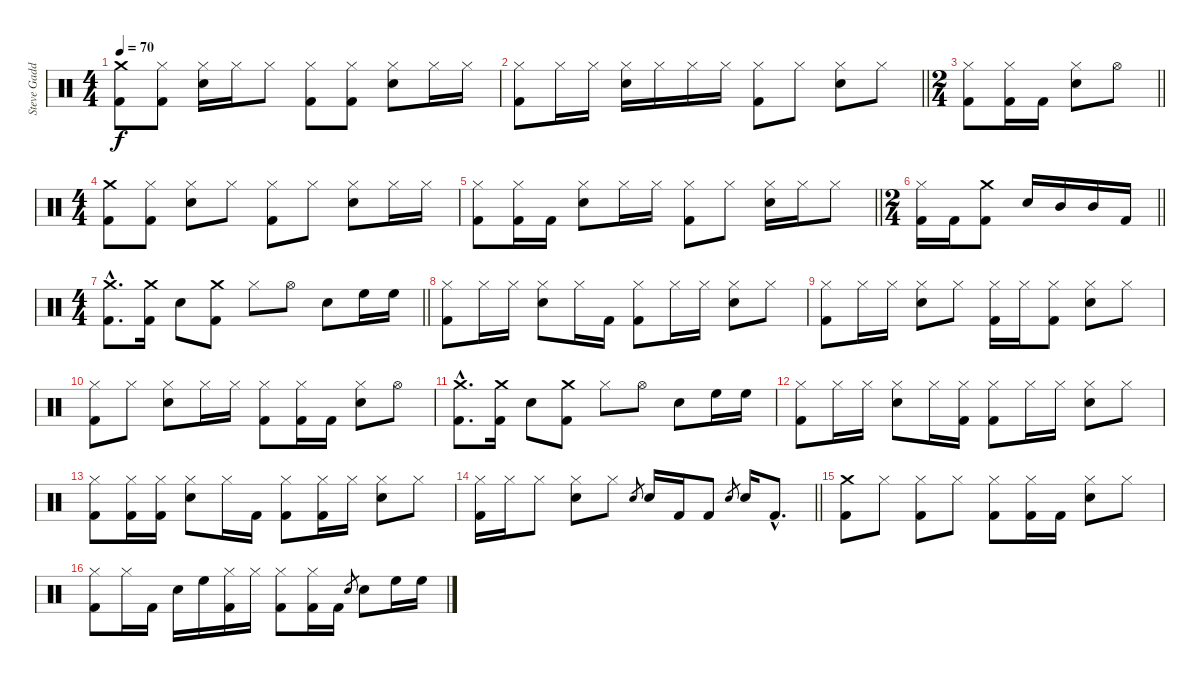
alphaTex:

\track ("Steve Gadd Drums" "Steve Gadd") {instrument percussion}
\staff {score}
\articulation defaults
\ts (4 4)
\tempo 70
\clef neutral
\ks c
("Crash medium (hit)" "Kick (hit) 2").8{dy f} ("Hi-Hat (closed)" "Kick (hit) 2").8 ("Hi-Hat (closed)" "Snare (hit) 2").16 "Hi-Hat (closed)".16 "Hi-Hat (closed)".8 ("Hi-Hat (closed)" "Kick (hit) 2").8 ("Hi-Hat (closed)" "Kick (hit) 2").8 ("Hi-Hat (closed)" "Snare (hit) 2").8 "Hi-Hat (closed)".16 "Hi-Hat (closed)".16 |
\barLineRight lightlight
("Hi-Hat (closed)" "Kick (hit) 2").8 "Hi-Hat (closed)".16 "Hi-Hat (closed)".16 ("Hi-Hat (closed)" "Snare (hit) 2").16 "Hi-Hat (closed)".16 "Hi-Hat (closed)".16 "Hi-Hat (closed)".16 ("Hi-Hat (closed)" "Kick (hit) 2").8 "Hi-Hat (closed)".8 ("Hi-Hat (closed)" "Snare (hit) 2").8 "Hi-Hat (closed)".8 |
\ts (2 4)
\barLineRight lightlight
("Hi-Hat (closed)" "Kick (hit) 2").8 ("Hi-Hat (closed)" "Kick (hit) 2").16 "Kick (hit) 2".16 ("Hi-Hat (closed)" "Snare (hit) 2").8 "Hi-Hat (open)".8 |
\ts (4 4)
("Crash medium (hit)" "Kick (hit) 2").8 ("Hi-Hat (closed)" "Kick (hit) 2").8 ("Hi-Hat (closed)" "Snare (hit) 2").8 "Hi-Hat (closed)".8 ("Hi-Hat (closed)" "Kick (hit) 2").8 "Hi-Hat (closed)".8 ("Hi-Hat (closed)" "Snare (hit) 2").8 "Hi-Hat (closed)".16 "Hi-Hat (closed)".16 |
\barLineRight lightlight
("Hi-Hat (closed)" "Kick (hit) 2").8 ("Hi-Hat (closed)" "Kick (hit) 2").16 "Kick (hit) 2".16 ("Hi-Hat (closed)" "Snare (hit) 2").8 "Hi-Hat (closed)".16 "Hi-Hat (closed)".16 ("Hi-Hat (closed)" "Kick (hit) 2").8 "Hi-Hat (closed)".8 ("Hi-Hat (closed)" "Snare (hit) 2").16 "Hi-Hat (closed)".16 "Hi-Hat (closed)".8 |
\ts (2 4)
\barLineRight lightlight
("Hi-Hat (closed)" "Kick (hit) 2").16 "Kick (hit) 2".16 ("Crash medium (hit)" "Kick (hit) 2").8 "Snare (hit) 2".16 "Mid Tom (hit)".16 "Mid Tom (hit)".16 "Kick (hit) 2".16 |
\ts (4 4)
\barLineRight lightlight
("Crash medium (hit)"{hac} "Kick (hit) 2"{hac}).8{d} ("Crash medium (hit)" "Kick (hit) 2").16 "Snare (hit) 2".8 ("Crash medium (hit)" "Kick (hit) 2").8 "Hi-Hat (closed)".8 "Hi-Hat (open)".8 "Snare (hit) 2".8 "High Floor Tom (hit)".16 "High Floor Tom (hit)".16 |
("Hi-Hat (closed)" "Kick (hit) 2").8 "Hi-Hat (closed)".16 "Hi-Hat (closed)".16 ("Hi-Hat (closed)" "Snare (hit) 2").8 "Hi-Hat (closed)".16 "Kick (hit) 2".16 ("Hi-Hat (closed)" "Kick (hit) 2").8 "Hi-Hat (closed)".16 "Hi-Hat (closed)".16 ("Hi-Hat (closed)" "Snare (hit) 2").8 "Hi-Hat (closed)".8 |
("Hi-Hat (closed)" "Kick (hit) 2").8 "Hi-Hat (closed)".16 "Hi-Hat (closed)".16 ("Hi-Hat (closed)" "Snare (hit) 2").8 "Hi-Hat (closed)".8 ("Hi-Hat (closed)" "Kick (hit) 2").16 "Hi-Hat (closed)".16 ("Hi-Hat (closed)" "Kick (hit) 2").8 ("Hi-Hat (closed)" "Snare (hit) 2").8 "Hi-Hat (closed)".8 |
("Hi-Hat (closed)" "Kick (hit) 2").8 "Hi-Hat (closed)".8 ("Hi-Hat (closed)" "Snare (hit) 2").8 "Hi-Hat (closed)".16 "Hi-Hat (closed)".16 ("Hi-Hat (closed)" "Kick (hit) 2").8 ("Hi-Hat (closed)" "Kick (hit) 2").16 "Kick (hit) 2".16 ("Hi-Hat (closed)" "Snare (hit) 2").8 "Hi-Hat (open)".8 |
("Crash medium (hit)"{hac} "Kick (hit) 2"{hac}).8{d} ("Crash medium (hit)" "Kick (hit) 2").16 "Snare (hit) 2".8 ("Crash medium (hit)" "Kick (hit) 2").8 "Hi-Hat (closed)".8 "Hi-Hat (open)".8 "Snare (hit) 2".8 "High Floor Tom (hit)".16 "High Floor Tom (hit)".16 |
("Hi-Hat (closed)" "Kick (hit) 2").8 "Hi-Hat (closed)".16 "Hi-Hat (closed)".16 ("Hi-Hat (closed)" "Snare (hit) 2").8 "Hi-Hat (closed)".16 ("Hi-Hat (closed)" "Kick (hit) 2").16 ("Hi-Hat (closed)" "Kick (hit) 2").8 "Hi-Hat (closed)".16 "Hi-Hat (closed)".16 ("Hi-Hat (closed)" "Snare (hit) 2").8 "Hi-Hat (closed)".8 |
("Hi-Hat (closed)" "Kick (hit) 2").8 ("Hi-Hat (closed)" "Kick (hit) 2").16 ("Hi-Hat (closed)" "Kick (hit) 2").16 ("Hi-Hat (closed)" "Snare (hit) 2").8 "Hi-Hat (closed)".16 "Kick (hit) 2".16 ("Hi-Hat (closed)" "Kick (hit) 2").8 ("Hi-Hat (closed)" "Kick (hit) 2").16 "Hi-Hat (closed)".16 ("Hi-Hat (closed)" "Snare (hit) 2").8 "Hi-Hat (closed)".8 |
\barLineRight lightlight
("Hi-Hat (closed)" "Kick (hit) 2").16 "Hi-Hat (closed)".16 "Hi-Hat (closed)".8 ("Hi-Hat (closed)" "Snare (hit) 2").8 "Hi-Hat (closed)".8 "Snare (hit) 2".8{gr} "Snare (hit) 2".16 "Kick (hit) 2".16 "Kick (hit) 2".8 "Snare (hit) 2".8{gr} "Snare (hit) 2".16 "Kick (hit) 2"{hac}.8{d} |
("Crash medium (hit)" "Kick (hit) 2").8 "Hi-Hat (closed)".8 ("Hi-Hat (closed)" "Kick (hit) 2").8 "Hi-Hat (closed)".8 ("Hi-Hat (closed)" "Kick (hit) 2").8 ("Hi-Hat (closed)" "Kick (hit) 2").16 "Kick (hit) 2".16 ("Hi-Hat (closed)" "Snare (hit) 2").8 "Hi-Hat (closed)".8 |
("Hi-Hat (closed)" "Kick (hit) 2").8 "Hi-Hat (closed)".16 "Kick (hit) 2".16 "Snare (hit) 2".16 "High Floor Tom (hit)".16 ("Hi-Hat (closed)" "Kick (hit) 2").16 "Hi-Hat (closed)".16 ("Hi-Hat (closed)" "Kick (hit) 2").8 ("Hi-Hat (closed)" "Kick (hit) 2").16 "Kick (hit) 2".16 "Snare (hit) 2".8{gr} "Snare (hit) 2".8 "High Floor Tom (hit)".16 "High Floor Tom (hit)".16
